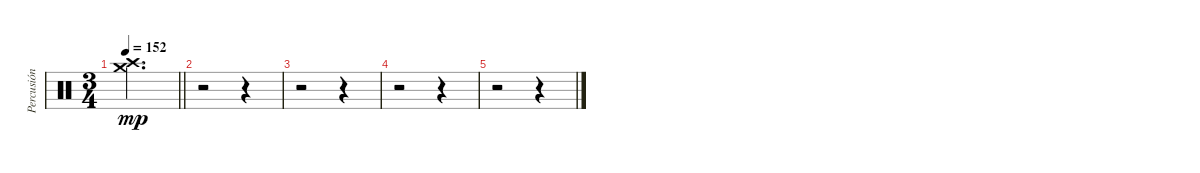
\track ("Percusión" "Percusión") {instrument percussion}
\staff {score}
\articulation defaults
\ts (3 4)
\tempo 152
\clef neutral
\barLineRight lightlight
\ks c
("Crash high (hit)" "Crash medium (hit)").2{d dy mp} |
r.2 r.4 |
r.2 r.4 |
r.2 r.4 |
r.2 r.4
